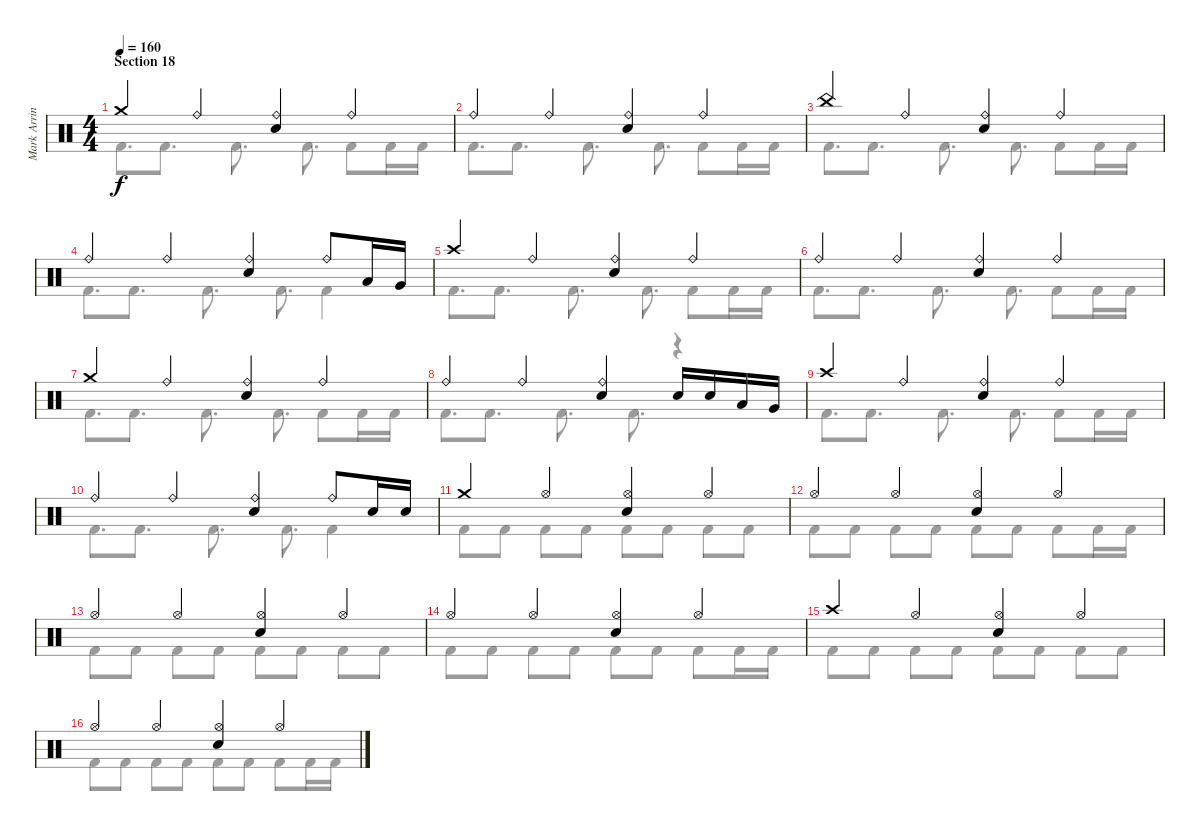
\track ("Mark Arrington – drums" "Mark Arrin") {instrument percussion}
\staff {score}
\articulation defaults
\voice
\ts (4 4)
\section ("" "Section 18")
\tempo 160
\clef neutral
\ks c "Crash medium (hit)".4{dy f} "Ride (bell)".4
("Ride (bell)" "Electric Snare (hit)").4 "Ride (bell)".4 |
"Ride (bell)".4 "Ride (bell)".4 ("Ride (bell)" "Electric Snare (hit)").4 "Ride (bell)".4 |
"China (hit)".4 "Ride (bell)".4 ("Ride (bell)" "Electric Snare (hit)").4 "Ride (bell)".4 |
"Ride (bell)".4 "Ride (bell)".4 ("Ride (bell)" "Electric Snare (hit)").4 "Ride (bell)".8 "Low Tom (hit)".16 "Very Low Tom (hit)".16 |
"Crash high (hit)".4 "Ride (bell)".4 ("Ride (bell)" "Electric Snare (hit)").4 "Ride (bell)".4 |
"Ride (bell)".4 "Ride (bell)".4 ("Ride (bell)" "Electric Snare (hit)").4 "Ride (bell)".4 |
"Crash medium (hit)".4 "Ride (bell)".4 ("Ride (bell)" "Electric Snare (hit)").4 "Ride (bell)".4 |
"Ride (bell)".4 "Ride (bell)".4 ("Ride (bell)" "Electric Snare (hit)").4 "Electric Snare (hit)".16 "Electric Snare (hit)".16 "Low Tom (hit)".16 "Very Low Tom (hit)".16 |
"Crash high (hit)".4 "Ride (bell)".4 ("Ride (bell)" "Electric Snare (hit)").4 "Ride (bell)".4 |
"Ride (bell)".4 "Ride (bell)".4 ("Ride (bell)" "Electric Snare (hit)").4 "Ride (bell)".8 "Electric Snare (hit)".16 "Electric Snare (hit)".16 |
"Crash medium (hit)".4 "Hi-Hat (open)".4 ("Hi-Hat (open)" "Electric Snare (hit)").4 "Hi-Hat (open)".4 |
"Hi-Hat (open)".4 "Hi-Hat (open)".4 ("Hi-Hat (open)" "Electric Snare (hit)").4 "Hi-Hat (open)".4 |
"Hi-Hat (open)".4 "Hi-Hat (open)".4 ("Hi-Hat (open)" "Electric Snare (hit)").4 "Hi-Hat (open)".4 |
"Hi-Hat (open)".4 "Hi-Hat (open)".4 ("Hi-Hat (open)" "Electric Snare (hit)").4 "Hi-Hat (open)".4 |
"Crash high (hit)".4 "Hi-Hat (open)".4 ("Hi-Hat (open)" "Electric Snare (hit)").4 "Hi-Hat (open)".4 |
"Hi-Hat (open)".4 "Hi-Hat (open)".4 ("Hi-Hat (open)" "Electric Snare (hit)").4 "Hi-Hat (open)".4
\voice
\clef neutral
\ottava regular
\simile none
\ks c "Kick (hit) 2".8{d dy f} "Kick (hit) 2".8{d} "Kick (hit) 2".8{d} "Kick (hit) 2".8{d} "Kick (hit) 2".8 "Kick (hit) 2".16 "Kick (hit) 2".16
|
"Kick (hit) 2".8{d} "Kick (hit) 2".8{d} "Kick (hit) 2".8{d} "Kick (hit) 2".8{d} "Kick (hit) 2".8 "Kick (hit) 2".16 "Kick (hit) 2".16 |
"Kick (hit) 2".8{d} "Kick (hit) 2".8{d} "Kick (hit) 2".8{d} "Kick (hit) 2".8{d} "Kick (hit) 2".8 "Kick (hit) 2".16 "Kick (hit) 2".16 |
"Kick (hit) 2".8{d} "Kick (hit) 2".8{d} "Kick (hit) 2".8{d} "Kick (hit) 2".8{d} "Kick (hit) 2".4 |
"Kick (hit) 2".8{d} "Kick (hit) 2".8{d} "Kick (hit) 2".8{d} "Kick (hit) 2".8{d} "Kick (hit) 2".8 "Kick (hit) 2".16 "Kick (hit) 2".16 |
"Kick (hit) 2".8{d} "Kick (hit) 2".8{d} "Kick (hit) 2".8{d} "Kick (hit) 2".8{d} "Kick (hit) 2".8 "Kick (hit) 2".16 "Kick (hit) 2".16 |
"Kick (hit) 2".8{d} "Kick (hit) 2".8{d} "Kick (hit) 2".8{d} "Kick (hit) 2".8{d} "Kick (hit) 2".8 "Kick (hit) 2".16 "Kick (hit) 2".16 |
"Kick (hit) 2".8{d} "Kick (hit) 2".8{d} "Kick (hit) 2".8{d} "Kick (hit) 2".8{d} r.4 |
"Kick (hit) 2".8{d} "Kick (hit) 2".8{d} "Kick (hit) 2".8{d} "Kick (hit) 2".8{d} "Kick (hit) 2".8 "Kick (hit) 2".16 "Kick (hit) 2".16 |
"Kick (hit) 2".8{d} "Kick (hit) 2".8{d} "Kick (hit) 2".8{d} "Kick (hit) 2".8{d} "Kick (hit) 2".4 |
"Kick (hit) 2".8 "Kick (hit) 2".8 "Kick (hit) 2".8 "Kick (hit) 2".8 "Kick (hit) 2".8 "Kick (hit) 2".8 "Kick (hit) 2".8 "Kick (hit) 2".8 |
"Kick (hit) 2".8 "Kick (hit) 2".8 "Kick (hit) 2".8 "Kick (hit) 2".8 "Kick (hit) 2".8 "Kick (hit) 2".8 "Kick (hit) 2".8 "Kick (hit) 2".16 "Kick (hit) 2".16 |
"Kick (hit) 2".8 "Kick (hit) 2".8 "Kick (hit) 2".8 "Kick (hit) 2".8 "Kick (hit) 2".8 "Kick (hit) 2".8 "Kick (hit) 2".8 "Kick (hit) 2".8 |
"Kick (hit) 2".8 "Kick (hit) 2".8 "Kick (hit) 2".8 "Kick (hit) 2".8 "Kick (hit) 2".8 "Kick (hit) 2".8 "Kick (hit) 2".8 "Kick (hit) 2".16 "Kick (hit) 2".16 |
"Kick (hit) 2".8 "Kick (hit) 2".8 "Kick (hit) 2".8 "Kick (hit) 2".8 "Kick (hit) 2".8 "Kick (hit) 2".8 "Kick (hit) 2".8 "Kick (hit) 2".8 |
"Kick (hit) 2".8 "Kick (hit) 2".8 "Kick (hit) 2".8 "Kick (hit) 2".8 "Kick (hit) 2".8 "Kick (hit) 2".8 "Kick (hit) 2".8 "Kick (hit) 2".16 "Kick (hit) 2".16
